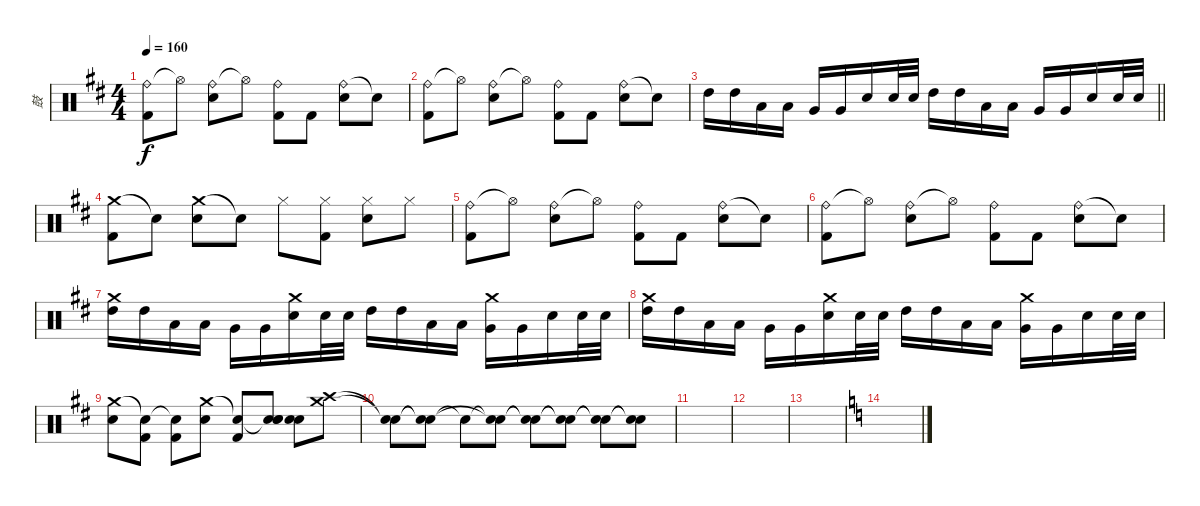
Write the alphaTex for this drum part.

\track ("鼓" "鼓") {instrument percussion}
\staff {score}
\articulation defaults
\ts (4 4)
\tempo 160
\clef neutral
\ks d
("Ride (bell)" "Kick (hit) 2").8{dy f} "Hi-Hat (open)"{t}.8 ("Ride (bell)" "Electric Snare (hit)").8 "Hi-Hat (open)"{t}.8 ("Ride (bell)" "Kick (hit) 2").8 "Kick (hit) 2".8 ("Ride (bell)" "Electric Snare (hit)").8 "Snare (hit)"{t}.8 |
("Ride (bell)" "Kick (hit) 2").8 "Hi-Hat (open)"{t}.8 ("Ride (bell)" "Electric Snare (hit)").8 "Hi-Hat (open)"{t}.8 ("Ride (bell)" "Kick (hit) 2").8 "Kick (hit) 2".8 ("Ride (bell)" "Electric Snare (hit)").8 "Snare (hit)"{t}.8 |
\barLineRight lightlight "High Tom (hit)".16 "High Tom (hit)".16 "Low Tom (hit)".16 "Low Tom (hit)".16 "Very Low Tom (hit)".16 "Very Low Tom (hit)".16 "Electric Snare (hit)".16 "Electric Snare (hit)".32 "Electric Snare (hit)".32 "High Tom (hit)".16 "High Tom (hit)".16 "Low Tom (hit)".16 "Low Tom (hit)".16 "Very Low Tom (hit)".16 "Very Low Tom (hit)".16 "Electric Snare (hit)".16 "Electric Snare (hit)".32 "Electric Snare (hit)".32
|
("Crash medium (hit)" "Kick (hit) 2").8 "Snare (hit)"{t}.8 ("Crash medium (hit)" "Electric Snare (hit)").8 "Snare (hit)"{t}.8 "Hi-Hat (closed)".8 ("Hi-Hat (closed)" "Kick (hit) 2").8 ("Hi-Hat (closed)" "Electric Snare (hit)").8 "Hi-Hat (closed)".8 |
("Ride (bell)" "Kick (hit) 2").8 "Hi-Hat (open)"{t}.8 ("Ride (bell)" "Electric Snare (hit)").8 "Hi-Hat (open)"{t}.8 ("Ride (bell)" "Kick (hit) 2").8 "Kick (hit) 2".8 ("Ride (bell)" "Electric Snare (hit)").8 "Snare (hit)"{t}.8 |
("Ride (bell)" "Kick (hit) 2").8 "Hi-Hat (open)"{t}.8 ("Ride (bell)" "Electric Snare (hit)").8 "Hi-Hat (open)"{t}.8 ("Ride (bell)" "Kick (hit) 2").8 "Kick (hit) 2".8 ("Ride (bell)" "Electric Snare (hit)").8 "Snare (hit)"{t}.8 |
("Crash medium (hit)" "High Tom (hit)").16 "High Tom (hit)".16 "Low Tom (hit)".16 "Low Tom (hit)".16 "Very Low Tom (hit)".16 "Very Low Tom (hit)".16 ("Crash medium (hit)" "Electric Snare (hit)").16 "Electric Snare (hit)".32 "Electric Snare (hit)".32 "High Tom (hit)".16 "High Tom (hit)".16 "Low Tom (hit)".16 "Low Tom (hit)".16 ("Crash medium (hit)" "Very Low Tom (hit)").16 "Very Low Tom (hit)".16 "Electric Snare (hit)".16 "Electric Snare (hit)".32 "Electric Snare (hit)".32 |
("Crash medium (hit)" "High Tom (hit)").16 "High Tom (hit)".16 "Low Tom (hit)".16 "Low Tom (hit)".16 "Very Low Tom (hit)".16 "Very Low Tom (hit)".16 ("Crash medium (hit)" "Electric Snare (hit)").16 "Electric Snare (hit)".32 "Electric Snare (hit)".32 "High Tom (hit)".16 "High Tom (hit)".16 "Low Tom (hit)".16 "Low Tom (hit)".16 ("Crash medium (hit)" "Very Low Tom (hit)").16 "Very Low Tom (hit)".16 "Electric Snare (hit)".16 "Electric Snare (hit)".32 "Electric Snare (hit)".32 |
("Crash medium (hit)" "Electric Snare (hit)").8 ("Snare (hit)"{t} "Kick (hit) 2").8 ("Snare (hit)"{t} "Kick (hit) 2").8 ("Crash medium (hit)" "Electric Snare (hit)").8 ("Snare (hit)"{t} "Kick (hit) 2").8 ("Snare (hit)"{t} "Electric Snare (hit)" "Electric Snare (hit)").8 ("Electric Snare (hit)" "Electric Snare (hit)").8 ("Crash medium (hit)" "Crash high (hit)").8 |
("Snare (hit)"{t} "Snare (hit)"{t}).8 ("Snare (hit)"{t} "Snare (hit)"{t}).8 "Snare (hit)"{t}.8 ("Snare (hit)"{t} "Snare (hit)"{t}).8 ("Snare (hit)"{t} "Snare (hit)"{t}).8 ("Snare (hit)"{t} "Snare (hit)"{t}).8 ("Snare (hit)"{t} "Snare (hit)"{t}).8 ("Snare (hit)"{t} "Snare (hit)"{t}).8 |
|
|
|
\ks c
